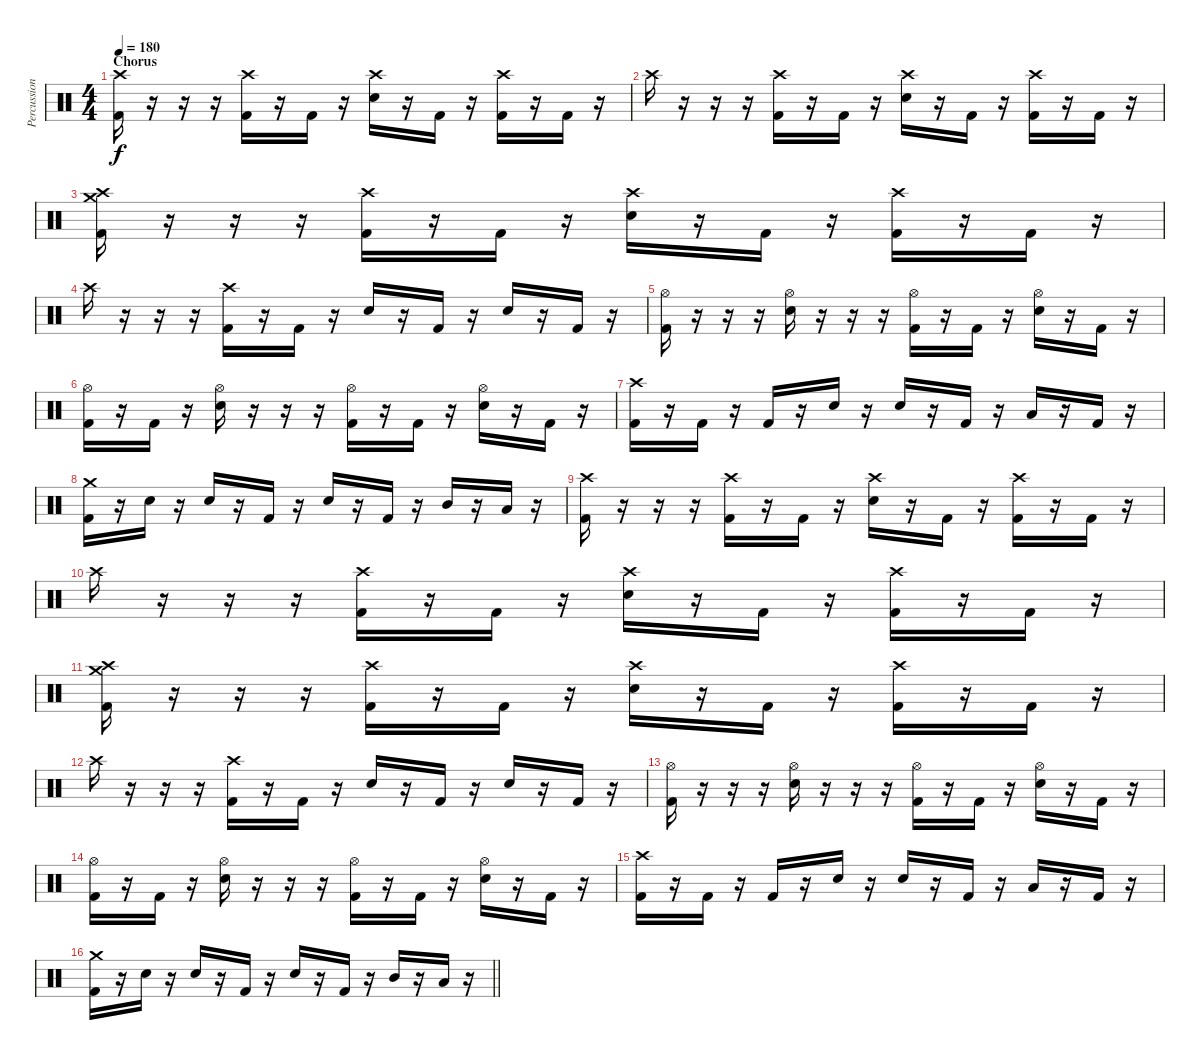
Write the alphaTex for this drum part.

\track ("Percussion" "Percussion") {instrument percussion}
\staff {score}
\articulation defaults
\ts (4 4)
\section ("" "Chorus")
\tempo 180
\clef neutral
\ks c
("Crash high (hit)" "Kick (hit) 2").16{dy f} r.16 r.16 r.16 ("Crash high (hit)" "Kick (hit) 2").16 r.16 "Kick (hit) 2".16 r.16 ("Crash high (hit)" "Electric Snare (hit)").16 r.16 "Kick (hit) 2".16 r.16 ("Crash high (hit)" "Kick (hit) 2").16 r.16 "Kick (hit) 2".16 r.16 |
"Crash high (hit)".16 r.16 r.16 r.16 ("Crash high (hit)" "Kick (hit) 2").16 r.16 "Kick (hit) 2".16 r.16 ("Crash high (hit)" "Electric Snare (hit)").16 r.16 "Kick (hit) 2".16 r.16 ("Crash high (hit)" "Kick (hit) 2").16 r.16 "Kick (hit) 2".16 r.16 |
("Crash high (hit)" "Crash medium (hit)" "Kick (hit) 2").16 r.16 r.16 r.16 ("Crash high (hit)" "Kick (hit) 2").16 r.16 "Kick (hit) 2".16 r.16 ("Crash high (hit)" "Electric Snare (hit)").16 r.16 "Kick (hit) 2".16 r.16 ("Crash high (hit)" "Kick (hit) 2").16 r.16 "Kick (hit) 2".16 r.16 |
"Crash high (hit)".16 r.16 r.16 r.16 ("Crash high (hit)" "Kick (hit) 2").16 r.16 "Kick (hit) 2".16 r.16 "Electric Snare (hit)".16 r.16 "Kick (hit) 2".16 r.16 "Electric Snare (hit)".16 r.16 "Kick (hit) 2".16 r.16 |
("Hi-Hat (open)" "Kick (hit) 2").16 r.16 r.16 r.16 ("Hi-Hat (open)" "Electric Snare (hit)").16 r.16 r.16 r.16 ("Hi-Hat (open)" "Kick (hit) 2").16 r.16 "Kick (hit) 2".16 r.16 ("Hi-Hat (open)" "Electric Snare (hit)").16 r.16 "Kick (hit) 2".16 r.16 |
("Hi-Hat (open)" "Kick (hit) 2").16 r.16 "Kick (hit) 2".16 r.16 ("Hi-Hat (open)" "Electric Snare (hit)").16 r.16 r.16 r.16 ("Hi-Hat (open)" "Kick (hit) 2").16 r.16 "Kick (hit) 2".16 r.16 ("Hi-Hat (open)" "Electric Snare (hit)").16 r.16 "Kick (hit) 2".16 r.16 |
("Crash high (hit)" "Kick (hit) 2").16 r.16 "Kick (hit) 2".16 r.16 "Kick (hit) 2".16 r.16 "Electric Snare (hit)".16 r.16 "Electric Snare (hit)".16 r.16 "Kick (hit) 2".16 r.16 "Low Tom (hit)".16 r.16 "Kick (hit) 2".16 r.16 |
("Crash medium (hit)" "Kick (hit) 2").16 r.16 "Electric Snare (hit)".16 r.16 "Electric Snare (hit)".16 r.16 "Kick (hit) 2".16 r.16 "Electric Snare (hit)".16 r.16 "Kick (hit) 2".16 r.16 "Mid Tom (hit)".16 r.16 "Low Tom (hit)".16 r.16 |
("Crash high (hit)" "Kick (hit) 2").16 r.16 r.16 r.16 ("Crash high (hit)" "Kick (hit) 2").16 r.16 "Kick (hit) 2".16 r.16 ("Crash high (hit)" "Electric Snare (hit)").16 r.16 "Kick (hit) 2".16 r.16 ("Crash high (hit)" "Kick (hit) 2").16 r.16 "Kick (hit) 2".16 r.16 |
"Crash high (hit)".16 r.16 r.16 r.16 ("Crash high (hit)" "Kick (hit) 2").16 r.16 "Kick (hit) 2".16 r.16 ("Crash high (hit)" "Electric Snare (hit)").16 r.16 "Kick (hit) 2".16 r.16 ("Crash high (hit)" "Kick (hit) 2").16 r.16 "Kick (hit) 2".16 r.16 |
("Crash high (hit)" "Crash medium (hit)" "Kick (hit) 2").16 r.16 r.16 r.16 ("Crash high (hit)" "Kick (hit) 2").16 r.16 "Kick (hit) 2".16 r.16 ("Crash high (hit)" "Electric Snare (hit)").16 r.16 "Kick (hit) 2".16 r.16 ("Crash high (hit)" "Kick (hit) 2").16 r.16 "Kick (hit) 2".16 r.16 |
"Crash high (hit)".16 r.16 r.16 r.16 ("Crash high (hit)" "Kick (hit) 2").16 r.16 "Kick (hit) 2".16 r.16 "Electric Snare (hit)".16 r.16 "Kick (hit) 2".16 r.16 "Electric Snare (hit)".16 r.16 "Kick (hit) 2".16 r.16 |
("Hi-Hat (open)" "Kick (hit) 2").16 r.16 r.16 r.16 ("Hi-Hat (open)" "Electric Snare (hit)").16 r.16 r.16 r.16 ("Hi-Hat (open)" "Kick (hit) 2").16 r.16 "Kick (hit) 2".16 r.16 ("Hi-Hat (open)" "Electric Snare (hit)").16 r.16 "Kick (hit) 2".16 r.16 |
("Hi-Hat (open)" "Kick (hit) 2").16 r.16 "Kick (hit) 2".16 r.16 ("Hi-Hat (open)" "Electric Snare (hit)").16 r.16 r.16 r.16 ("Hi-Hat (open)" "Kick (hit) 2").16 r.16 "Kick (hit) 2".16 r.16 ("Hi-Hat (open)" "Electric Snare (hit)").16 r.16 "Kick (hit) 2".16 r.16 |
("Crash high (hit)" "Kick (hit) 2").16 r.16 "Kick (hit) 2".16 r.16 "Kick (hit) 2".16 r.16 "Electric Snare (hit)".16 r.16 "Electric Snare (hit)".16 r.16 "Kick (hit) 2".16 r.16 "Low Tom (hit)".16 r.16 "Kick (hit) 2".16 r.16 |
\barLineRight lightlight
("Crash medium (hit)" "Kick (hit) 2").16 r.16 "Electric Snare (hit)".16 r.16 "Electric Snare (hit)".16 r.16 "Kick (hit) 2".16 r.16 "Electric Snare (hit)".16 r.16 "Kick (hit) 2".16 r.16 "Mid Tom (hit)".16 r.16 "Low Tom (hit)".16 r.16
